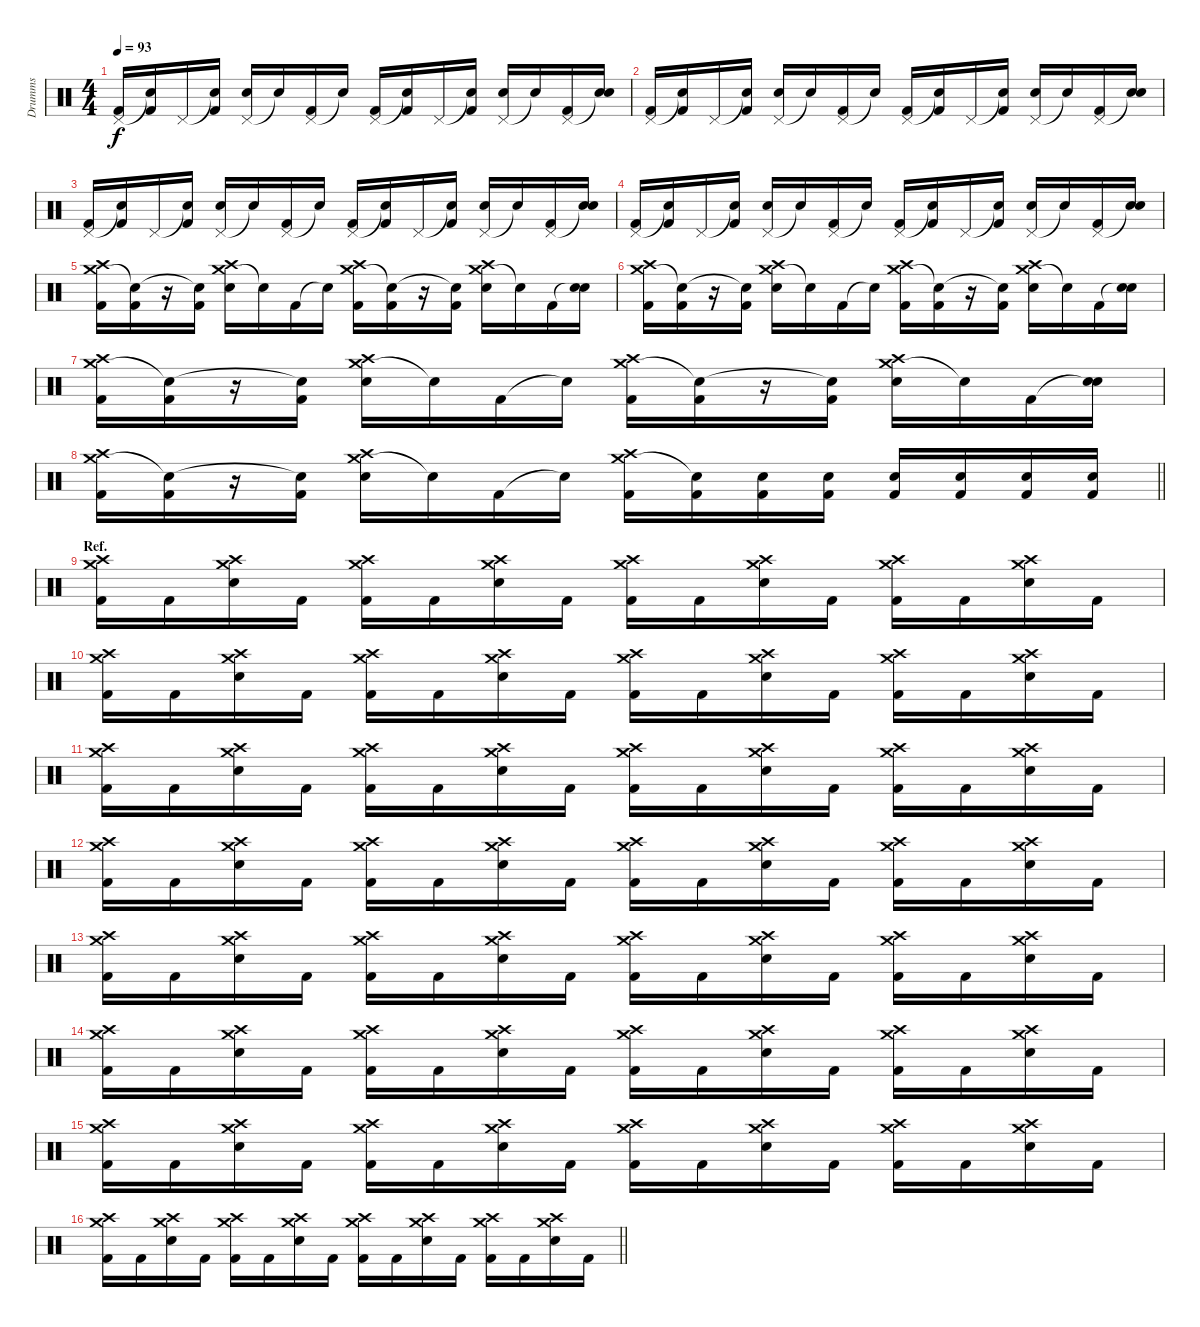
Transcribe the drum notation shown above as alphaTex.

\track ("Drumms" "Drumms") {instrument percussion}
\staff {score}
\articulation defaults
\ts (4 4)
\tempo 93
\clef neutral
\ks c
("Pedal Hi-Hat (hit)" "Kick (hit) 2").16{dy f} ("Snare (hit)"{t} "Kick (hit) 2").16 "Pedal Hi-Hat (hit)".16 ("Snare (hit)"{t} "Kick (hit) 2").16 ("Pedal Hi-Hat (hit)" "Electric Snare (hit)").16 "Snare (hit)"{t}.16 ("Pedal Hi-Hat (hit)" "Kick (hit) 2").16 "Snare (hit)"{t}.16 ("Pedal Hi-Hat (hit)" "Kick (hit) 2").16 ("Snare (hit)"{t} "Kick (hit) 2").16 "Pedal Hi-Hat (hit)".16 ("Snare (hit)"{t} "Kick (hit) 2").16 ("Pedal Hi-Hat (hit)" "Electric Snare (hit)").16 "Snare (hit)"{t}.16 ("Pedal Hi-Hat (hit)" "Kick (hit) 2").16 ("Snare (hit)"{t} "Electric Snare (hit)").16 |
("Pedal Hi-Hat (hit)" "Kick (hit) 2").16 ("Snare (hit)"{t} "Kick (hit) 2").16 "Pedal Hi-Hat (hit)".16 ("Snare (hit)"{t} "Kick (hit) 2").16 ("Pedal Hi-Hat (hit)" "Electric Snare (hit)").16 "Snare (hit)"{t}.16 ("Pedal Hi-Hat (hit)" "Kick (hit) 2").16 "Snare (hit)"{t}.16 ("Pedal Hi-Hat (hit)" "Kick (hit) 2").16 ("Snare (hit)"{t} "Kick (hit) 2").16 "Pedal Hi-Hat (hit)".16 ("Snare (hit)"{t} "Kick (hit) 2").16 ("Pedal Hi-Hat (hit)" "Electric Snare (hit)").16 "Snare (hit)"{t}.16 ("Pedal Hi-Hat (hit)" "Kick (hit) 2").16 ("Snare (hit)"{t} "Electric Snare (hit)").16 |
("Pedal Hi-Hat (hit)" "Kick (hit) 2").16 ("Snare (hit)"{t} "Kick (hit) 2").16 "Pedal Hi-Hat (hit)".16 ("Snare (hit)"{t} "Kick (hit) 2").16 ("Pedal Hi-Hat (hit)" "Electric Snare (hit)").16 "Snare (hit)"{t}.16 ("Pedal Hi-Hat (hit)" "Kick (hit) 2").16 "Snare (hit)"{t}.16 ("Pedal Hi-Hat (hit)" "Kick (hit) 2").16 ("Snare (hit)"{t} "Kick (hit) 2").16 "Pedal Hi-Hat (hit)".16 ("Snare (hit)"{t} "Kick (hit) 2").16 ("Pedal Hi-Hat (hit)" "Electric Snare (hit)").16 "Snare (hit)"{t}.16 ("Pedal Hi-Hat (hit)" "Kick (hit) 2").16 ("Snare (hit)"{t} "Electric Snare (hit)").16 |
("Pedal Hi-Hat (hit)" "Kick (hit) 2").16 ("Snare (hit)"{t} "Kick (hit) 2").16 "Pedal Hi-Hat (hit)".16 ("Snare (hit)"{t} "Kick (hit) 2").16 ("Pedal Hi-Hat (hit)" "Electric Snare (hit)").16 "Snare (hit)"{t}.16 ("Pedal Hi-Hat (hit)" "Kick (hit) 2").16 "Snare (hit)"{t}.16 ("Pedal Hi-Hat (hit)" "Kick (hit) 2").16 ("Snare (hit)"{t} "Kick (hit) 2").16 "Pedal Hi-Hat (hit)".16 ("Snare (hit)"{t} "Kick (hit) 2").16 ("Pedal Hi-Hat (hit)" "Electric Snare (hit)").16 "Snare (hit)"{t}.16 ("Pedal Hi-Hat (hit)" "Kick (hit) 2").16 ("Snare (hit)"{t} "Electric Snare (hit)").16 |
("Crash medium (hit)" "Crash high (hit)" "Kick (hit) 2").16 ("Snare (hit)"{t} "Kick (hit) 2").16 r.16 ("Snare (hit)"{t} "Kick (hit) 2").16 ("Crash medium (hit)" "Crash high (hit)" "Electric Snare (hit)").16 "Snare (hit)"{t}.16 "Kick (hit) 2".16 "Snare (hit)"{t}.16 ("Crash medium (hit)" "Crash high (hit)" "Kick (hit) 2").16 ("Snare (hit)"{t} "Kick (hit) 2").16 r.16 ("Snare (hit)"{t} "Kick (hit) 2").16 ("Crash medium (hit)" "Crash high (hit)" "Electric Snare (hit)").16 "Snare (hit)"{t}.16 "Kick (hit) 2".16 ("Snare (hit)"{t} "Electric Snare (hit)").16 |
("Crash medium (hit)" "Crash high (hit)" "Kick (hit) 2").16 ("Snare (hit)"{t} "Kick (hit) 2").16 r.16 ("Snare (hit)"{t} "Kick (hit) 2").16 ("Crash medium (hit)" "Crash high (hit)" "Electric Snare (hit)").16 "Snare (hit)"{t}.16 "Kick (hit) 2".16 "Snare (hit)"{t}.16 ("Crash medium (hit)" "Crash high (hit)" "Kick (hit) 2").16 ("Snare (hit)"{t} "Kick (hit) 2").16 r.16 ("Snare (hit)"{t} "Kick (hit) 2").16 ("Crash medium (hit)" "Crash high (hit)" "Electric Snare (hit)").16 "Snare (hit)"{t}.16 "Kick (hit) 2".16 ("Snare (hit)"{t} "Electric Snare (hit)").16 |
("Crash medium (hit)" "Crash high (hit)" "Kick (hit) 2").16 ("Snare (hit)"{t} "Kick (hit) 2").16 r.16 ("Snare (hit)"{t} "Kick (hit) 2").16 ("Crash medium (hit)" "Crash high (hit)" "Electric Snare (hit)").16 "Snare (hit)"{t}.16 "Kick (hit) 2".16 "Snare (hit)"{t}.16 ("Crash medium (hit)" "Crash high (hit)" "Kick (hit) 2").16 ("Snare (hit)"{t} "Kick (hit) 2").16 r.16 ("Snare (hit)"{t} "Kick (hit) 2").16 ("Crash medium (hit)" "Crash high (hit)" "Electric Snare (hit)").16 "Snare (hit)"{t}.16 "Kick (hit) 2".16 ("Snare (hit)"{t} "Electric Snare (hit)").16 |
\barLineRight lightlight
("Crash medium (hit)" "Crash high (hit)" "Kick (hit) 2").16 ("Snare (hit)"{t} "Kick (hit) 2").16 r.16 ("Snare (hit)"{t} "Kick (hit) 2").16 ("Crash medium (hit)" "Crash high (hit)" "Electric Snare (hit)").16 "Snare (hit)"{t}.16 "Kick (hit) 2".16 "Snare (hit)"{t}.16 ("Crash medium (hit)" "Crash high (hit)" "Kick (hit) 2").16 ("Snare (hit)"{t} "Kick (hit) 2").16 ("Electric Snare (hit)" "Kick (hit) 2").16 ("Electric Snare (hit)" "Kick (hit) 2").16 ("Electric Snare (hit)" "Kick (hit) 2").16 ("Electric Snare (hit)" "Kick (hit) 2").16 ("Electric Snare (hit)" "Kick (hit) 2").16 ("Electric Snare (hit)" "Kick (hit) 2").16 |
\section ("" "Ref.")
("Crash medium (hit)" "Crash high (hit)" "Kick (hit) 2").16 "Kick (hit) 2".16 ("Crash medium (hit)" "Crash high (hit)" "Electric Snare (hit)").16 "Kick (hit) 2".16 ("Crash medium (hit)" "Crash high (hit)" "Kick (hit) 2").16 "Kick (hit) 2".16 ("Crash medium (hit)" "Crash high (hit)" "Electric Snare (hit)").16 "Kick (hit) 2".16 ("Crash medium (hit)" "Crash high (hit)" "Kick (hit) 2").16 "Kick (hit) 2".16 ("Crash medium (hit)" "Crash high (hit)" "Electric Snare (hit)").16 "Kick (hit) 2".16 ("Crash medium (hit)" "Crash high (hit)" "Kick (hit) 2").16 "Kick (hit) 2".16 ("Crash medium (hit)" "Crash high (hit)" "Electric Snare (hit)").16 "Kick (hit) 2".16 |
("Crash medium (hit)" "Crash high (hit)" "Kick (hit) 2").16 "Kick (hit) 2".16 ("Crash medium (hit)" "Crash high (hit)" "Electric Snare (hit)").16 "Kick (hit) 2".16 ("Crash medium (hit)" "Crash high (hit)" "Kick (hit) 2").16 "Kick (hit) 2".16 ("Crash medium (hit)" "Crash high (hit)" "Electric Snare (hit)").16 "Kick (hit) 2".16 ("Crash medium (hit)" "Crash high (hit)" "Kick (hit) 2").16 "Kick (hit) 2".16 ("Crash medium (hit)" "Crash high (hit)" "Electric Snare (hit)").16 "Kick (hit) 2".16 ("Crash medium (hit)" "Crash high (hit)" "Kick (hit) 2").16 "Kick (hit) 2".16 ("Crash medium (hit)" "Crash high (hit)" "Electric Snare (hit)").16 "Kick (hit) 2".16 |
("Crash medium (hit)" "Crash high (hit)" "Kick (hit) 2").16 "Kick (hit) 2".16 ("Crash medium (hit)" "Crash high (hit)" "Electric Snare (hit)").16 "Kick (hit) 2".16 ("Crash medium (hit)" "Crash high (hit)" "Kick (hit) 2").16 "Kick (hit) 2".16 ("Crash medium (hit)" "Crash high (hit)" "Electric Snare (hit)").16 "Kick (hit) 2".16 ("Crash medium (hit)" "Crash high (hit)" "Kick (hit) 2").16 "Kick (hit) 2".16 ("Crash medium (hit)" "Crash high (hit)" "Electric Snare (hit)").16 "Kick (hit) 2".16 ("Crash medium (hit)" "Crash high (hit)" "Kick (hit) 2").16 "Kick (hit) 2".16 ("Crash medium (hit)" "Crash high (hit)" "Electric Snare (hit)").16 "Kick (hit) 2".16 |
("Crash medium (hit)" "Crash high (hit)" "Kick (hit) 2").16 "Kick (hit) 2".16 ("Crash medium (hit)" "Crash high (hit)" "Electric Snare (hit)").16 "Kick (hit) 2".16 ("Crash medium (hit)" "Crash high (hit)" "Kick (hit) 2").16 "Kick (hit) 2".16 ("Crash medium (hit)" "Crash high (hit)" "Electric Snare (hit)").16 "Kick (hit) 2".16 ("Crash medium (hit)" "Crash high (hit)" "Kick (hit) 2").16 "Kick (hit) 2".16 ("Crash medium (hit)" "Crash high (hit)" "Electric Snare (hit)").16 "Kick (hit) 2".16 ("Crash medium (hit)" "Crash high (hit)" "Kick (hit) 2").16 "Kick (hit) 2".16 ("Crash medium (hit)" "Crash high (hit)" "Electric Snare (hit)").16 "Kick (hit) 2".16 |
("Crash medium (hit)" "Crash high (hit)" "Kick (hit) 2").16 "Kick (hit) 2".16 ("Crash medium (hit)" "Crash high (hit)" "Electric Snare (hit)").16 "Kick (hit) 2".16 ("Crash medium (hit)" "Crash high (hit)" "Kick (hit) 2").16 "Kick (hit) 2".16 ("Crash medium (hit)" "Crash high (hit)" "Electric Snare (hit)").16 "Kick (hit) 2".16 ("Crash medium (hit)" "Crash high (hit)" "Kick (hit) 2").16 "Kick (hit) 2".16 ("Crash medium (hit)" "Crash high (hit)" "Electric Snare (hit)").16 "Kick (hit) 2".16 ("Crash medium (hit)" "Crash high (hit)" "Kick (hit) 2").16 "Kick (hit) 2".16 ("Crash medium (hit)" "Crash high (hit)" "Electric Snare (hit)").16 "Kick (hit) 2".16 |
("Crash medium (hit)" "Crash high (hit)" "Kick (hit) 2").16 "Kick (hit) 2".16 ("Crash medium (hit)" "Crash high (hit)" "Electric Snare (hit)").16 "Kick (hit) 2".16 ("Crash medium (hit)" "Crash high (hit)" "Kick (hit) 2").16 "Kick (hit) 2".16 ("Crash medium (hit)" "Crash high (hit)" "Electric Snare (hit)").16 "Kick (hit) 2".16 ("Crash medium (hit)" "Crash high (hit)" "Kick (hit) 2").16 "Kick (hit) 2".16 ("Crash medium (hit)" "Crash high (hit)" "Electric Snare (hit)").16 "Kick (hit) 2".16 ("Crash medium (hit)" "Crash high (hit)" "Kick (hit) 2").16 "Kick (hit) 2".16 ("Crash medium (hit)" "Crash high (hit)" "Electric Snare (hit)").16 "Kick (hit) 2".16 |
("Crash medium (hit)" "Crash high (hit)" "Kick (hit) 2").16 "Kick (hit) 2".16 ("Crash medium (hit)" "Crash high (hit)" "Electric Snare (hit)").16 "Kick (hit) 2".16 ("Crash medium (hit)" "Crash high (hit)" "Kick (hit) 2").16 "Kick (hit) 2".16 ("Crash medium (hit)" "Crash high (hit)" "Electric Snare (hit)").16 "Kick (hit) 2".16 ("Crash medium (hit)" "Crash high (hit)" "Kick (hit) 2").16 "Kick (hit) 2".16 ("Crash medium (hit)" "Crash high (hit)" "Electric Snare (hit)").16 "Kick (hit) 2".16 ("Crash medium (hit)" "Crash high (hit)" "Kick (hit) 2").16 "Kick (hit) 2".16 ("Crash medium (hit)" "Crash high (hit)" "Electric Snare (hit)").16 "Kick (hit) 2".16 |
\barLineRight lightlight
("Crash medium (hit)" "Crash high (hit)" "Kick (hit) 2").16 "Kick (hit) 2".16 ("Crash medium (hit)" "Crash high (hit)" "Electric Snare (hit)").16 "Kick (hit) 2".16 ("Crash medium (hit)" "Crash high (hit)" "Kick (hit) 2").16 "Kick (hit) 2".16 ("Crash medium (hit)" "Crash high (hit)" "Electric Snare (hit)").16 "Kick (hit) 2".16 ("Crash medium (hit)" "Crash high (hit)" "Kick (hit) 2").16 "Kick (hit) 2".16 ("Crash medium (hit)" "Crash high (hit)" "Electric Snare (hit)").16 "Kick (hit) 2".16 ("Crash medium (hit)" "Crash high (hit)" "Kick (hit) 2").16 "Kick (hit) 2".16 ("Crash medium (hit)" "Crash high (hit)" "Electric Snare (hit)").16 "Kick (hit) 2".16
